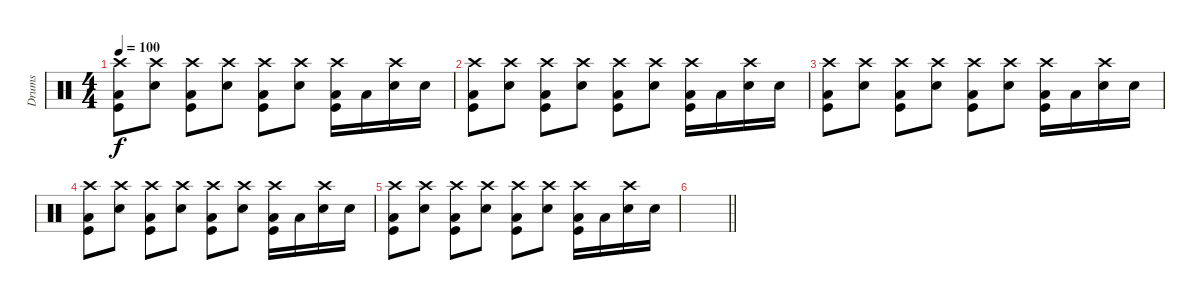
\track ("Drums" "Drums") {instrument percussion}
\staff {score}
\articulation defaults
\ts (4 4)
\tempo 100
\clef neutral
\ks c
("Crash high (hit)" "Low Floor Tom (hit)" "Kick (hit)").8{dy f} ("Crash high (hit)" "Snare (hit) 2").8 ("Crash high (hit)" "Low Floor Tom (hit)" "Kick (hit)").8 ("Crash high (hit)" "Snare (hit) 2").8 ("Crash high (hit)" "Low Floor Tom (hit)" "Kick (hit)").8 ("Crash high (hit)" "Snare (hit) 2").8 ("Crash high (hit)" "Low Floor Tom (hit)" "Kick (hit)").16 "Low Floor Tom (hit)".16 ("Crash high (hit)" "Snare (hit) 2").16 "Snare (hit) 2".16 |
("Crash high (hit)" "Low Floor Tom (hit)" "Kick (hit)").8 ("Crash high (hit)" "Snare (hit) 2").8 ("Crash high (hit)" "Low Floor Tom (hit)" "Kick (hit)").8 ("Crash high (hit)" "Snare (hit) 2").8 ("Crash high (hit)" "Low Floor Tom (hit)" "Kick (hit)").8 ("Crash high (hit)" "Snare (hit) 2").8 ("Crash high (hit)" "Low Floor Tom (hit)" "Kick (hit)").16 "Low Floor Tom (hit)".16 ("Crash high (hit)" "Snare (hit) 2").16 "Snare (hit) 2".16 |
("Crash high (hit)" "Low Floor Tom (hit)" "Kick (hit)").8 ("Crash high (hit)" "Snare (hit) 2").8 ("Crash high (hit)" "Low Floor Tom (hit)" "Kick (hit)").8 ("Crash high (hit)" "Snare (hit) 2").8 ("Crash high (hit)" "Low Floor Tom (hit)" "Kick (hit)").8 ("Crash high (hit)" "Snare (hit) 2").8 ("Crash high (hit)" "Low Floor Tom (hit)" "Kick (hit)").16 "Low Floor Tom (hit)".16 ("Crash high (hit)" "Snare (hit) 2").16 "Snare (hit) 2".16 |
("Crash high (hit)" "Low Floor Tom (hit)" "Kick (hit)").8 ("Crash high (hit)" "Snare (hit) 2").8 ("Crash high (hit)" "Low Floor Tom (hit)" "Kick (hit)").8 ("Crash high (hit)" "Snare (hit) 2").8 ("Crash high (hit)" "Low Floor Tom (hit)" "Kick (hit)").8 ("Crash high (hit)" "Snare (hit) 2").8 ("Crash high (hit)" "Low Floor Tom (hit)" "Kick (hit)").16 "Low Floor Tom (hit)".16 ("Crash high (hit)" "Snare (hit) 2").16 "Snare (hit) 2".16 |
("Crash high (hit)" "Low Floor Tom (hit)" "Kick (hit)").8 ("Crash high (hit)" "Snare (hit) 2").8 ("Crash high (hit)" "Low Floor Tom (hit)" "Kick (hit)").8 ("Crash high (hit)" "Snare (hit) 2").8 ("Crash high (hit)" "Low Floor Tom (hit)" "Kick (hit)").8 ("Crash high (hit)" "Snare (hit) 2").8 ("Crash high (hit)" "Low Floor Tom (hit)" "Kick (hit)").16 "Low Floor Tom (hit)".16 ("Crash high (hit)" "Snare (hit) 2").16 "Snare (hit) 2".16 |
\barLineRight lightlight
